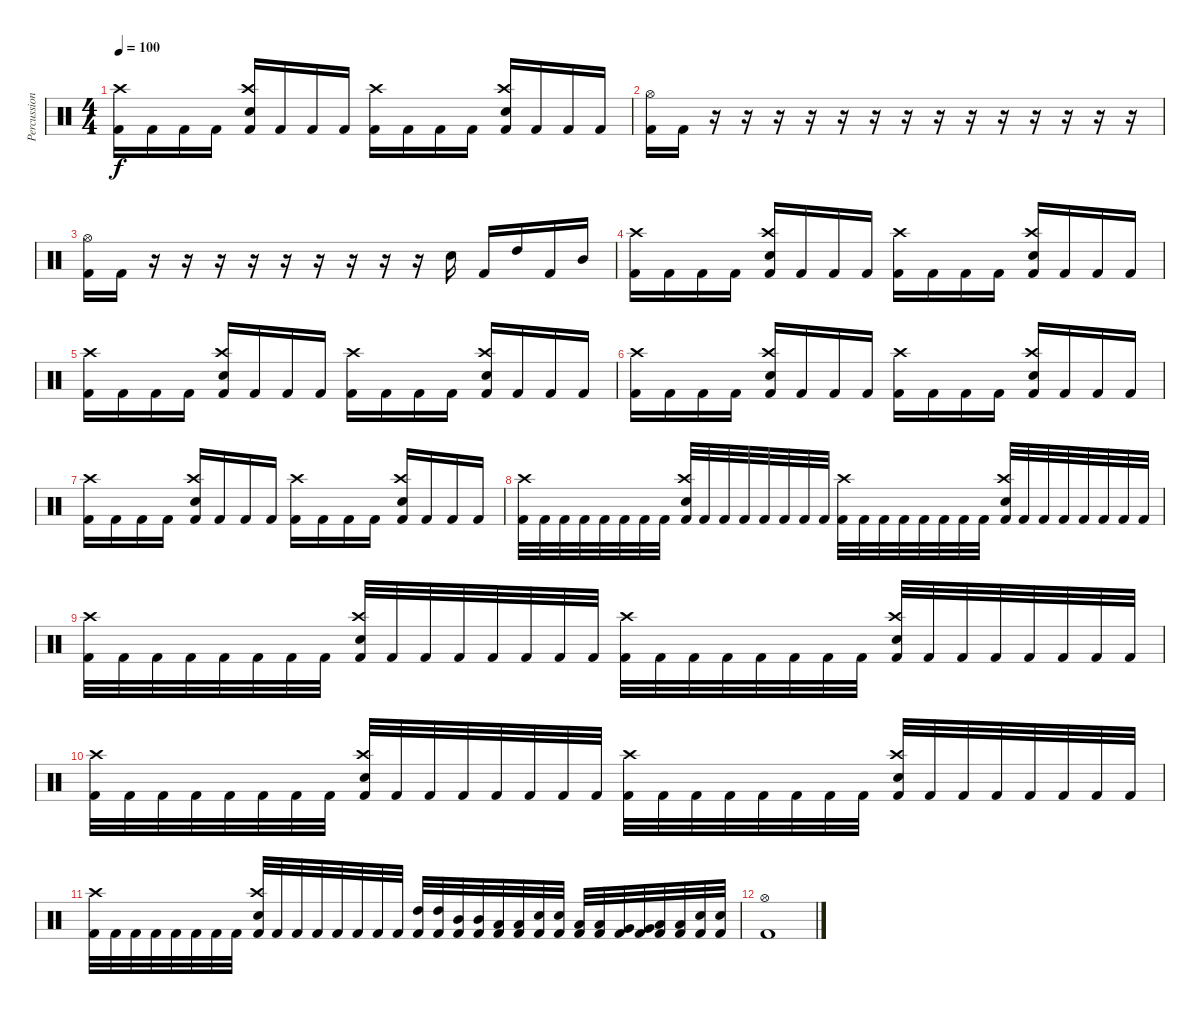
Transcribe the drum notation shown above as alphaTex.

\track ("Percussion" "Percussion") {instrument percussion}
\staff {score}
\articulation defaults
\ts (4 4)
\tempo 100
\clef neutral
\ks c
("Kick (hit) 2" "Crash high (hit)").16{dy f} "Kick (hit) 2".16 "Kick (hit) 2".16 "Kick (hit) 2".16 ("Kick (hit) 2" "Crash high (hit)" "Electric Snare (hit)").16 "Kick (hit) 2".16 "Kick (hit) 2".16 "Kick (hit) 2".16 ("Kick (hit) 2" "Crash high (hit)").16 "Kick (hit) 2".16 "Kick (hit) 2".16 "Kick (hit) 2".16 ("Kick (hit) 2" "Crash high (hit)" "Electric Snare (hit)").16 "Kick (hit) 2".16 "Kick (hit) 2".16 "Kick (hit) 2".16 |
("Kick (hit) 2" "Hi-Hat (open)").16 "Kick (hit) 2".16 r.16 r.16 r.16 r.16 r.16 r.16 r.16 r.16 r.16 r.16 r.16 r.16 r.16 r.16 |
("Kick (hit) 2" "Hi-Hat (open)").16 "Kick (hit) 2".16 r.16 r.16 r.16 r.16 r.16 r.16 r.16 r.16 r.16 "Electric Snare (hit)".16 "Kick (hit) 2".16 "High Tom (hit)".16 "Kick (hit) 2".16 "Mid Tom (hit)".16 |
("Kick (hit) 2" "Crash high (hit)").16 "Kick (hit) 2".16 "Kick (hit) 2".16 "Kick (hit) 2".16 ("Kick (hit) 2" "Electric Snare (hit)" "Crash high (hit)").16 "Kick (hit) 2".16 "Kick (hit) 2".16 "Kick (hit) 2".16 ("Kick (hit) 2" "Crash high (hit)").16 "Kick (hit) 2".16 "Kick (hit) 2".16 "Kick (hit) 2".16 ("Kick (hit) 2" "Crash high (hit)" "Electric Snare (hit)").16 "Kick (hit) 2".16 "Kick (hit) 2".16 "Kick (hit) 2".16 |
("Kick (hit) 2" "Crash high (hit)").16 "Kick (hit) 2".16 "Kick (hit) 2".16 "Kick (hit) 2".16 ("Kick (hit) 2" "Electric Snare (hit)" "Crash high (hit)").16 "Kick (hit) 2".16 "Kick (hit) 2".16 "Kick (hit) 2".16 ("Kick (hit) 2" "Crash high (hit)").16 "Kick (hit) 2".16 "Kick (hit) 2".16 "Kick (hit) 2".16 ("Kick (hit) 2" "Crash high (hit)" "Electric Snare (hit)").16 "Kick (hit) 2".16 "Kick (hit) 2".16 "Kick (hit) 2".16 |
("Kick (hit) 2" "Crash high (hit)").16 "Kick (hit) 2".16 "Kick (hit) 2".16 "Kick (hit) 2".16 ("Kick (hit) 2" "Electric Snare (hit)" "Crash high (hit)").16 "Kick (hit) 2".16 "Kick (hit) 2".16 "Kick (hit) 2".16 ("Kick (hit) 2" "Crash high (hit)").16 "Kick (hit) 2".16 "Kick (hit) 2".16 "Kick (hit) 2".16 ("Kick (hit) 2" "Crash high (hit)" "Electric Snare (hit)").16 "Kick (hit) 2".16 "Kick (hit) 2".16 "Kick (hit) 2".16 |
("Kick (hit) 2" "Crash high (hit)").16 "Kick (hit) 2".16 "Kick (hit) 2".16 "Kick (hit) 2".16 ("Kick (hit) 2" "Electric Snare (hit)" "Crash high (hit)").16 "Kick (hit) 2".16 "Kick (hit) 2".16 "Kick (hit) 2".16 ("Kick (hit) 2" "Crash high (hit)").16 "Kick (hit) 2".16 "Kick (hit) 2".16 "Kick (hit) 2".16 ("Kick (hit) 2" "Crash high (hit)" "Electric Snare (hit)").16 "Kick (hit) 2".16 "Kick (hit) 2".16 "Kick (hit) 2".16 |
("Kick (hit) 2" "Crash high (hit)").32 "Kick (hit) 2".32 "Kick (hit) 2".32 "Kick (hit) 2".32 "Kick (hit) 2".32 "Kick (hit) 2".32 "Kick (hit) 2".32 "Kick (hit) 2".32 ("Kick (hit) 2" "Crash high (hit)" "Electric Snare (hit)").32 "Kick (hit) 2".32 "Kick (hit) 2".32 "Kick (hit) 2".32 "Kick (hit) 2".32 "Kick (hit) 2".32 "Kick (hit) 2".32 "Kick (hit) 2".32 ("Kick (hit) 2" "Crash high (hit)").32 "Kick (hit) 2".32 "Kick (hit) 2".32 "Kick (hit) 2".32 "Kick (hit) 2".32 "Kick (hit) 2".32 "Kick (hit) 2".32 "Kick (hit) 2".32 ("Kick (hit) 2" "Crash high (hit)" "Electric Snare (hit)").32 "Kick (hit) 2".32 "Kick (hit) 2".32 "Kick (hit) 2".32 "Kick (hit) 2".32 "Kick (hit) 2".32 "Kick (hit) 2".32 "Kick (hit) 2".32 |
("Kick (hit) 2" "Crash high (hit)").32 "Kick (hit) 2".32 "Kick (hit) 2".32 "Kick (hit) 2".32 "Kick (hit) 2".32 "Kick (hit) 2".32 "Kick (hit) 2".32 "Kick (hit) 2".32 ("Kick (hit) 2" "Crash high (hit)" "Electric Snare (hit)").32 "Kick (hit) 2".32 "Kick (hit) 2".32 "Kick (hit) 2".32 "Kick (hit) 2".32 "Kick (hit) 2".32 "Kick (hit) 2".32 "Kick (hit) 2".32 ("Kick (hit) 2" "Crash high (hit)").32 "Kick (hit) 2".32 "Kick (hit) 2".32 "Kick (hit) 2".32 "Kick (hit) 2".32 "Kick (hit) 2".32 "Kick (hit) 2".32 "Kick (hit) 2".32 ("Kick (hit) 2" "Crash high (hit)" "Electric Snare (hit)").32 "Kick (hit) 2".32 "Kick (hit) 2".32 "Kick (hit) 2".32 "Kick (hit) 2".32 "Kick (hit) 2".32 "Kick (hit) 2".32 "Kick (hit) 2".32 |
("Kick (hit) 2" "Crash high (hit)").32 "Kick (hit) 2".32 "Kick (hit) 2".32 "Kick (hit) 2".32 "Kick (hit) 2".32 "Kick (hit) 2".32 "Kick (hit) 2".32 "Kick (hit) 2".32 ("Kick (hit) 2" "Crash high (hit)" "Electric Snare (hit)").32 "Kick (hit) 2".32 "Kick (hit) 2".32 "Kick (hit) 2".32 "Kick (hit) 2".32 "Kick (hit) 2".32 "Kick (hit) 2".32 "Kick (hit) 2".32 ("Kick (hit) 2" "Crash high (hit)").32 "Kick (hit) 2".32 "Kick (hit) 2".32 "Kick (hit) 2".32 "Kick (hit) 2".32 "Kick (hit) 2".32 "Kick (hit) 2".32 "Kick (hit) 2".32 ("Kick (hit) 2" "Crash high (hit)" "Electric Snare (hit)").32 "Kick (hit) 2".32 "Kick (hit) 2".32 "Kick (hit) 2".32 "Kick (hit) 2".32 "Kick (hit) 2".32 "Kick (hit) 2".32 "Kick (hit) 2".32 |
("Kick (hit) 2" "Crash high (hit)").32 "Kick (hit) 2".32 "Kick (hit) 2".32 "Kick (hit) 2".32 "Kick (hit) 2".32 "Kick (hit) 2".32 "Kick (hit) 2".32 "Kick (hit) 2".32 ("Kick (hit) 2" "Crash high (hit)" "Electric Snare (hit)").32 "Kick (hit) 2".32 "Kick (hit) 2".32 "Kick (hit) 2".32 "Kick (hit) 2".32 "Kick (hit) 2".32 "Kick (hit) 2".32 "Kick (hit) 2".32 ("Kick (hit) 2" "High Tom (hit)").32 ("Kick (hit) 2" "High Tom (hit)").32 ("Kick (hit) 2" "Mid Tom (hit)").32 ("Kick (hit) 2" "Mid Tom (hit)").32 ("Kick (hit) 2" "Low Tom (hit)").32 ("Kick (hit) 2" "Low Tom (hit)").32 ("Kick (hit) 2" "Electric Snare (hit)").32 ("Kick (hit) 2" "Electric Snare (hit)").32 ("Kick (hit) 2" "Low Tom (hit)").32 ("Kick (hit) 2" "Low Tom (hit)").32 ("Kick (hit) 2" "Very Low Tom (hit)").32 ("Kick (hit) 2" "Very Low Tom (hit)").32 ("Kick (hit) 2" "Low Floor Tom (hit)").32 ("Kick (hit) 2" "Low Floor Tom (hit)").32 ("Kick (hit) 2" "Electric Snare (hit)").32 ("Kick (hit) 2" "Electric Snare (hit)").32 |
("Kick (hit) 2" "Hi-Hat (open)").1
